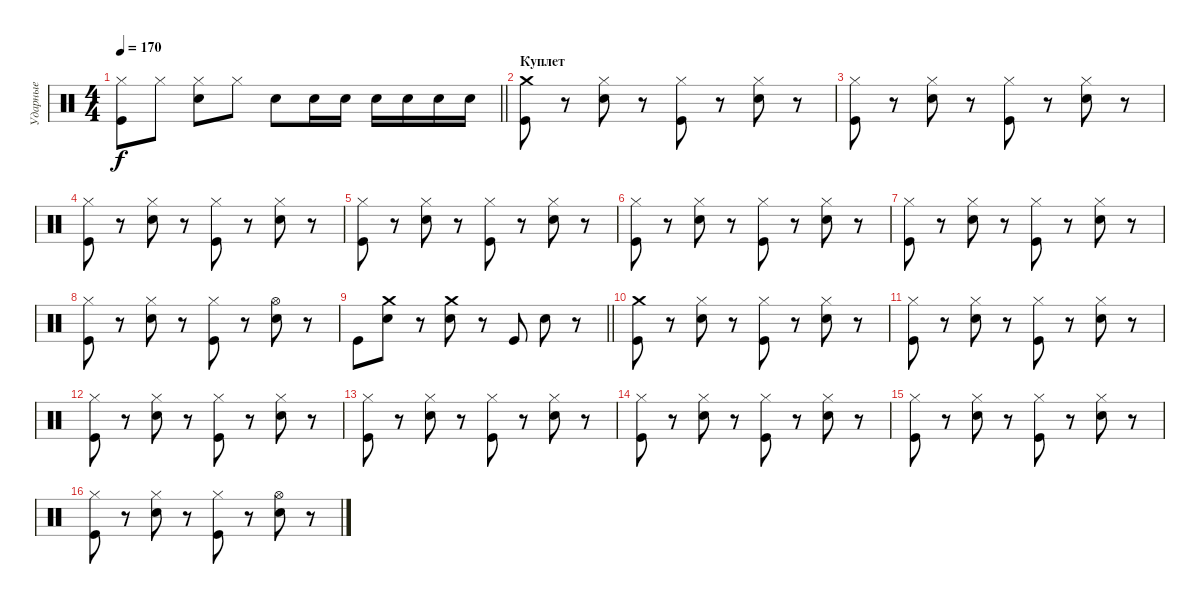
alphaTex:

\track ("Ударные" "Ударные") {instrument percussion}
\staff {score}
\articulation defaults
\ts (4 4)
\tempo 170
\clef neutral
\barLineRight lightlight
\ks c
("Hi-Hat (closed)" "Kick (hit)").8{dy f} "Hi-Hat (closed)".8 ("Hi-Hat (closed)" "Electric Snare (hit)").8 "Hi-Hat (closed)".8 "Electric Snare (hit)".8 "Electric Snare (hit)".16 "Electric Snare (hit)".16 "Electric Snare (hit)".16 "Electric Snare (hit)".16 "Electric Snare (hit)".16 "Electric Snare (hit)".16 |
\section ("" "Куплет")
("Crash medium (hit)" "Kick (hit)").8 r.8 ("Hi-Hat (closed)" "Electric Snare (hit)").8 r.8 ("Hi-Hat (closed)" "Kick (hit)").8 r.8 ("Hi-Hat (closed)" "Electric Snare (hit)").8 r.8 |
("Hi-Hat (closed)" "Kick (hit)").8 r.8 ("Hi-Hat (closed)" "Electric Snare (hit)").8 r.8 ("Hi-Hat (closed)" "Kick (hit)").8 r.8 ("Hi-Hat (closed)" "Electric Snare (hit)").8 r.8 |
("Hi-Hat (closed)" "Kick (hit)").8 r.8 ("Hi-Hat (closed)" "Electric Snare (hit)").8 r.8 ("Hi-Hat (closed)" "Kick (hit)").8 r.8 ("Hi-Hat (closed)" "Electric Snare (hit)").8 r.8 |
("Hi-Hat (closed)" "Kick (hit)").8 r.8 ("Hi-Hat (closed)" "Electric Snare (hit)").8 r.8 ("Hi-Hat (closed)" "Kick (hit)").8 r.8 ("Hi-Hat (closed)" "Electric Snare (hit)").8 r.8 |
("Hi-Hat (closed)" "Kick (hit)").8 r.8 ("Hi-Hat (closed)" "Electric Snare (hit)").8 r.8 ("Hi-Hat (closed)" "Kick (hit)").8 r.8 ("Hi-Hat (closed)" "Electric Snare (hit)").8 r.8 |
("Hi-Hat (closed)" "Kick (hit)").8 r.8 ("Hi-Hat (closed)" "Electric Snare (hit)").8 r.8 ("Hi-Hat (closed)" "Kick (hit)").8 r.8 ("Hi-Hat (closed)" "Electric Snare (hit)").8 r.8 |
("Hi-Hat (closed)" "Kick (hit)").8 r.8 ("Hi-Hat (closed)" "Electric Snare (hit)").8 r.8 ("Hi-Hat (closed)" "Kick (hit)").8 r.8 ("Hi-Hat (open)" "Electric Snare (hit)").8 r.8 |
\barLineRight lightlight "Kick (hit)".8
("Crash medium (hit)" "Electric Snare (hit)").8 r.8 ("Crash medium (hit)" "Electric Snare (hit)").8 r.8 "Kick (hit)".8 "Electric Snare (hit)".8 r.8 |
\section ("" " ")
("Crash medium (hit)" "Kick (hit)").8 r.8 ("Hi-Hat (closed)" "Electric Snare (hit)").8 r.8 ("Hi-Hat (closed)" "Kick (hit)").8 r.8 ("Hi-Hat (closed)" "Electric Snare (hit)").8 r.8 |
("Hi-Hat (closed)" "Kick (hit)").8 r.8 ("Hi-Hat (closed)" "Electric Snare (hit)").8 r.8 ("Hi-Hat (closed)" "Kick (hit)").8 r.8 ("Hi-Hat (closed)" "Electric Snare (hit)").8 r.8 |
("Hi-Hat (closed)" "Kick (hit)").8 r.8 ("Hi-Hat (closed)" "Electric Snare (hit)").8 r.8 ("Hi-Hat (closed)" "Kick (hit)").8 r.8 ("Hi-Hat (closed)" "Electric Snare (hit)").8 r.8 |
("Hi-Hat (closed)" "Kick (hit)").8 r.8 ("Hi-Hat (closed)" "Electric Snare (hit)").8 r.8 ("Hi-Hat (closed)" "Kick (hit)").8 r.8 ("Hi-Hat (closed)" "Electric Snare (hit)").8 r.8 |
("Hi-Hat (closed)" "Kick (hit)").8 r.8 ("Hi-Hat (closed)" "Electric Snare (hit)").8 r.8 ("Hi-Hat (closed)" "Kick (hit)").8 r.8 ("Hi-Hat (closed)" "Electric Snare (hit)").8 r.8 |
("Hi-Hat (closed)" "Kick (hit)").8 r.8 ("Hi-Hat (closed)" "Electric Snare (hit)").8 r.8 ("Hi-Hat (closed)" "Kick (hit)").8 r.8 ("Hi-Hat (closed)" "Electric Snare (hit)").8 r.8 |
("Hi-Hat (closed)" "Kick (hit)").8 r.8 ("Hi-Hat (closed)" "Electric Snare (hit)").8 r.8 ("Hi-Hat (closed)" "Kick (hit)").8 r.8 ("Hi-Hat (open)" "Electric Snare (hit)").8 r.8
